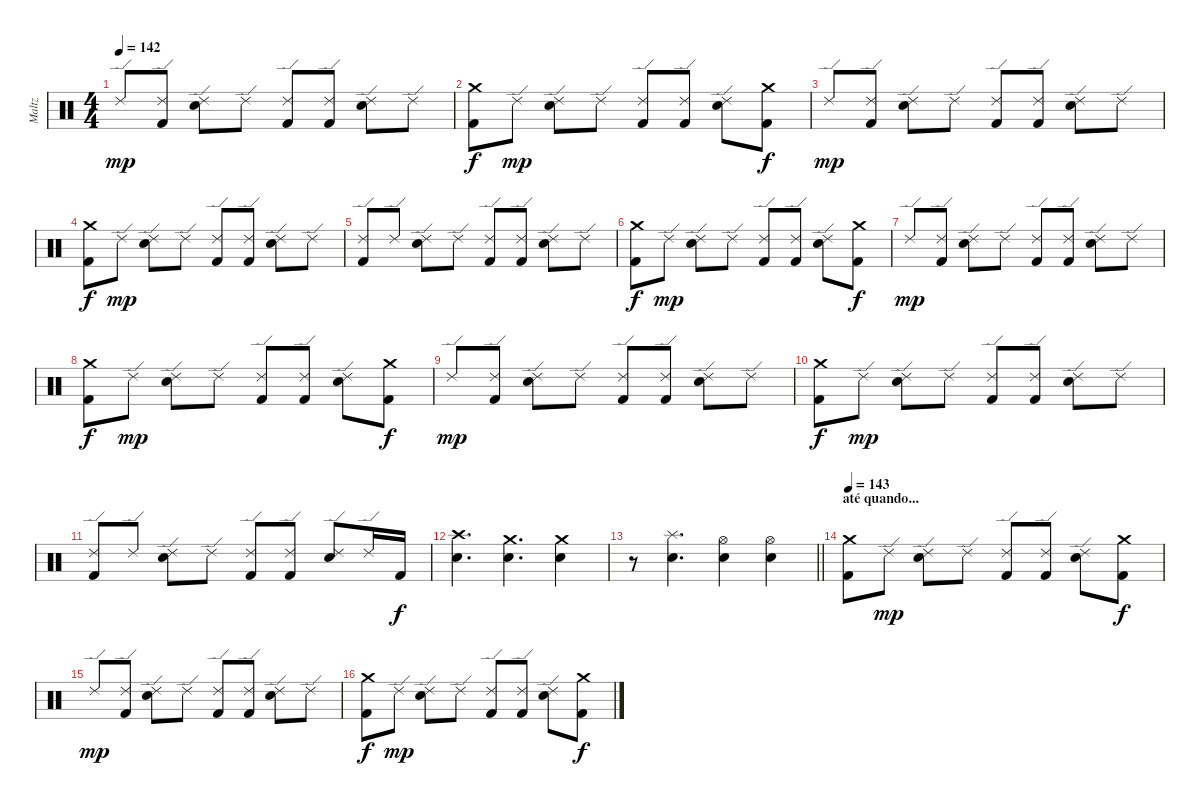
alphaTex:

\track ("Maltz" "Maltz") {instrument percussion}
\staff {score}
\articulation defaults
\ts (4 4)
\tempo 142
\clef neutral
\ks c "Ride (edge) 2".8{dy mp}
("Ride (edge) 2" "Kick (hit) 2").8 ("Ride (edge) 2" "Electric Snare (hit)").8 "Ride (edge) 2".8 ("Ride (edge) 2" "Kick (hit) 2").8 ("Ride (edge) 2" "Kick (hit) 2").8 ("Ride (edge) 2" "Electric Snare (hit)").8 "Ride (edge) 2".8 |
("Crash medium (hit)" "Kick (hit) 2").8{dy f} "Ride (edge) 2".8{dy mp} ("Ride (edge) 2" "Electric Snare (hit)").8 "Ride (edge) 2".8 ("Ride (edge) 2" "Kick (hit) 2").8 ("Ride (edge) 2" "Kick (hit) 2").8 ("Ride (edge) 2" "Electric Snare (hit)").8 ("Crash medium (hit)" "Kick (hit) 2").8{dy f} |
"Ride (edge) 2".8{dy mp} ("Ride (edge) 2" "Kick (hit) 2").8 ("Ride (edge) 2" "Electric Snare (hit)").8 "Ride (edge) 2".8 ("Ride (edge) 2" "Kick (hit) 2").8 ("Ride (edge) 2" "Kick (hit) 2").8 ("Ride (edge) 2" "Electric Snare (hit)").8 "Ride (edge) 2".8 |
("Crash medium (hit)" "Kick (hit) 2").8{dy f} "Ride (edge) 2".8{dy mp} ("Ride (edge) 2" "Electric Snare (hit)").8 "Ride (edge) 2".8 ("Ride (edge) 2" "Kick (hit) 2").8 ("Ride (edge) 2" "Kick (hit) 2").8 ("Ride (edge) 2" "Electric Snare (hit)").8 "Ride (edge) 2".8 |
("Ride (edge) 2" "Kick (hit) 2").8 "Ride (edge) 2".8 ("Ride (edge) 2" "Electric Snare (hit)").8 "Ride (edge) 2".8 ("Ride (edge) 2" "Kick (hit) 2").8 ("Ride (edge) 2" "Kick (hit) 2").8 ("Ride (edge) 2" "Electric Snare (hit)").8 "Ride (edge) 2".8 |
("Crash medium (hit)" "Kick (hit) 2").8{dy f} "Ride (edge) 2".8{dy mp} ("Ride (edge) 2" "Electric Snare (hit)").8 "Ride (edge) 2".8 ("Ride (edge) 2" "Kick (hit) 2").8 ("Ride (edge) 2" "Kick (hit) 2").8 ("Ride (edge) 2" "Electric Snare (hit)").8 ("Crash medium (hit)" "Kick (hit) 2").8{dy f} |
"Ride (edge) 2".8{dy mp} ("Ride (edge) 2" "Kick (hit) 2").8 ("Ride (edge) 2" "Electric Snare (hit)").8 "Ride (edge) 2".8 ("Ride (edge) 2" "Kick (hit) 2").8 ("Ride (edge) 2" "Kick (hit) 2").8 ("Ride (edge) 2" "Electric Snare (hit)").8 "Ride (edge) 2".8 |
("Crash medium (hit)" "Kick (hit) 2").8{dy f} "Ride (edge) 2".8{dy mp} ("Ride (edge) 2" "Electric Snare (hit)").8 "Ride (edge) 2".8 ("Ride (edge) 2" "Kick (hit) 2").8 ("Ride (edge) 2" "Kick (hit) 2").8 ("Ride (edge) 2" "Electric Snare (hit)").8 ("Crash medium (hit)" "Kick (hit) 2").8{dy f} |
"Ride (edge) 2".8{dy mp} ("Ride (edge) 2" "Kick (hit) 2").8 ("Ride (edge) 2" "Electric Snare (hit)").8 "Ride (edge) 2".8 ("Ride (edge) 2" "Kick (hit) 2").8 ("Ride (edge) 2" "Kick (hit) 2").8 ("Ride (edge) 2" "Electric Snare (hit)").8 "Ride (edge) 2".8 |
("Crash medium (hit)" "Kick (hit) 2").8{dy f} "Ride (edge) 2".8{dy mp} ("Ride (edge) 2" "Electric Snare (hit)").8 "Ride (edge) 2".8 ("Ride (edge) 2" "Kick (hit) 2").8 ("Ride (edge) 2" "Kick (hit) 2").8 ("Ride (edge) 2" "Electric Snare (hit)").8 "Ride (edge) 2".8 |
("Ride (edge) 2" "Kick (hit) 2").8 "Ride (edge) 2".8 ("Ride (edge) 2" "Electric Snare (hit)").8 "Ride (edge) 2".8 ("Ride (edge) 2" "Kick (hit) 2").8 ("Ride (edge) 2" "Kick (hit) 2").8 ("Ride (edge) 2" "Electric Snare (hit)").8 "Ride (edge) 2".16 "Kick (hit) 2".16{dy f} |
("Crash high (hit)" "Electric Snare (hit)").4{d} ("Crash medium (hit)" "Electric Snare (hit)").4{d} ("Crash medium (hit)" "Electric Snare (hit)").4 |
\barLineRight lightlight
r.8 ("Splash (hit)" "Electric Snare (hit)").4{d} ("Hi-Hat (open)" "Electric Snare (hit)").4 ("Hi-Hat (open)" "Electric Snare (hit)").4 |
\section ("" "até quando...")
\tempo 143
("Crash medium (hit)" "Kick (hit) 2").8 "Ride (edge) 2".8{dy mp} ("Ride (edge) 2" "Electric Snare (hit)").8 "Ride (edge) 2".8 ("Ride (edge) 2" "Kick (hit) 2").8 ("Ride (edge) 2" "Kick (hit) 2").8 ("Ride (edge) 2" "Electric Snare (hit)").8 ("Crash medium (hit)" "Kick (hit) 2").8{dy f} |
"Ride (edge) 2".8{dy mp} ("Ride (edge) 2" "Kick (hit) 2").8 ("Ride (edge) 2" "Electric Snare (hit)").8 "Ride (edge) 2".8 ("Ride (edge) 2" "Kick (hit) 2").8 ("Ride (edge) 2" "Kick (hit) 2").8 ("Ride (edge) 2" "Electric Snare (hit)").8 "Ride (edge) 2".8 |
("Crash medium (hit)" "Kick (hit) 2").8{dy f} "Ride (edge) 2".8{dy mp} ("Ride (edge) 2" "Electric Snare (hit)").8 "Ride (edge) 2".8 ("Ride (edge) 2" "Kick (hit) 2").8 ("Ride (edge) 2" "Kick (hit) 2").8 ("Ride (edge) 2" "Electric Snare (hit)").8 ("Crash medium (hit)" "Kick (hit) 2").8{dy f}
